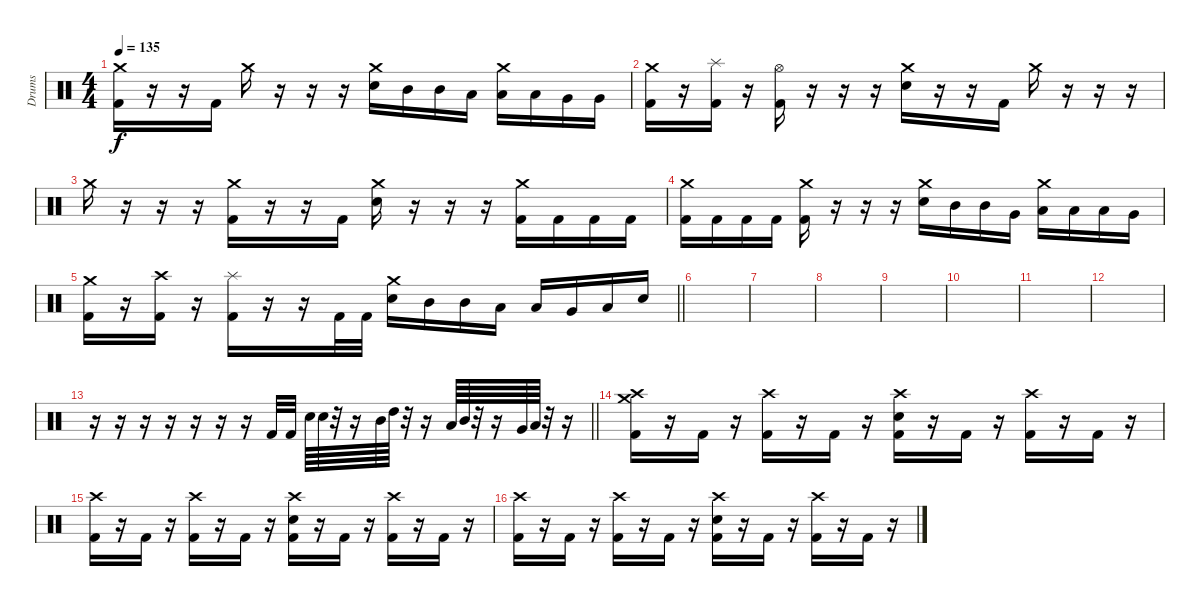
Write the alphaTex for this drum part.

\track ("Drums" "Drums") {instrument percussion}
\staff {score}
\articulation defaults
\ts (4 4)
\tempo 135
\clef neutral
\ks c
("Crash medium (hit)" "Kick (hit) 2").16{dy f} r.16 r.16 "Kick (hit) 2".16 "Crash medium (hit)".16 r.16 r.16 r.16 ("Crash medium (hit)" "Electric Snare (hit)").16 "Mid Tom (hit)".16 "Mid Tom (hit)".16 "Low Tom (hit)".16 ("Crash medium (hit)" "Low Tom (hit)").16 "Low Tom (hit)".16 "Very Low Tom (hit)".16 "Very Low Tom (hit)".16 |
("Crash medium (hit)" "Kick (hit) 2").16 r.16 ("Splash (hit)" "Kick (hit) 2").16 r.16 ("Hi-Hat (open)" "Kick (hit) 2").16 r.16 r.16 r.16 ("Crash medium (hit)" "Electric Snare (hit)").16 r.16 r.16 "Kick (hit) 2".16 "Crash medium (hit)".16 r.16 r.16 r.16 |
"Crash medium (hit)".16 r.16 r.16 r.16 ("Crash medium (hit)" "Kick (hit) 2").16 r.16 r.16 "Kick (hit) 2".16 ("Crash medium (hit)" "Electric Snare (hit)").16 r.16 r.16 r.16 ("Crash medium (hit)" "Kick (hit) 2").16 "Kick (hit) 2".16 "Kick (hit) 2".16 "Kick (hit) 2".16 |
("Crash medium (hit)" "Kick (hit) 2").16 "Kick (hit) 2".16 "Kick (hit) 2".16 "Kick (hit) 2".16 ("Crash medium (hit)" "Kick (hit) 2").16 r.16 r.16 r.16 ("Crash medium (hit)" "Electric Snare (hit)").16 "Mid Tom (hit)".16 "Mid Tom (hit)".16 "Very Low Tom (hit)".16 ("Crash medium (hit)" "Low Tom (hit)").16 "Low Tom (hit)".16 "Low Tom (hit)".16 "Very Low Tom (hit)".16 |
\barLineRight lightlight
("Crash medium (hit)" "Kick (hit) 2").16 r.16 ("Crash high (hit)" "Kick (hit) 2").16 r.16 ("Splash (hit)" "Kick (hit) 2").16 r.16 r.16 "Kick (hit) 2".32 "Kick (hit) 2".32 ("Crash medium (hit)" "Electric Snare (hit)").16 "Mid Tom (hit)".16 "Mid Tom (hit)".16 "Low Tom (hit)".16 "Low Tom (hit)".16 "Very Low Tom (hit)".16 "Low Floor Tom (hit)".16 "Electric Snare (hit)".16 |
\section ("" "")
|
|
|
|
|
|
|
\barLineRight lightlight
r.16 r.16 r.16 r.16 r.16 r.16 r.16 "Kick (hit) 2".32 "Kick (hit) 2".32 "Electric Snare (hit)".64 "Electric Snare (hit)".64 r.32 r.16 "Mid Tom (hit)".64 "High Tom (hit)".64 r.32 r.16 "Low Tom (hit)".64 "Mid Tom (hit)".64 r.32 r.16 "Very Low Tom (hit)".64 "Low Tom (hit)".64 r.32 r.16 |
\section ("" "")
("Crash medium (hit)" "Crash high (hit)" "Kick (hit) 2").16 r.16 "Kick (hit) 2".16 r.16 ("Crash high (hit)" "Kick (hit) 2").16 r.16 "Kick (hit) 2".16 r.16 ("Crash high (hit)" "Electric Snare (hit)" "Kick (hit) 2").16 r.16 "Kick (hit) 2".16 r.16 ("Crash high (hit)" "Kick (hit) 2").16 r.16 "Kick (hit) 2".16 r.16 |
("Crash high (hit)" "Kick (hit) 2").16 r.16 "Kick (hit) 2".16 r.16 ("Crash high (hit)" "Kick (hit) 2").16 r.16 "Kick (hit) 2".16 r.16 ("Crash high (hit)" "Electric Snare (hit)" "Kick (hit) 2").16 r.16 "Kick (hit) 2".16 r.16 ("Crash high (hit)" "Kick (hit) 2").16 r.16 "Kick (hit) 2".16 r.16 |
("Crash high (hit)" "Kick (hit) 2").16 r.16 "Kick (hit) 2".16 r.16 ("Crash high (hit)" "Kick (hit) 2").16 r.16 "Kick (hit) 2".16 r.16 ("Crash high (hit)" "Electric Snare (hit)" "Kick (hit) 2").16 r.16 "Kick (hit) 2".16 r.16 ("Crash high (hit)" "Kick (hit) 2").16 r.16 "Kick (hit) 2".16 r.16
